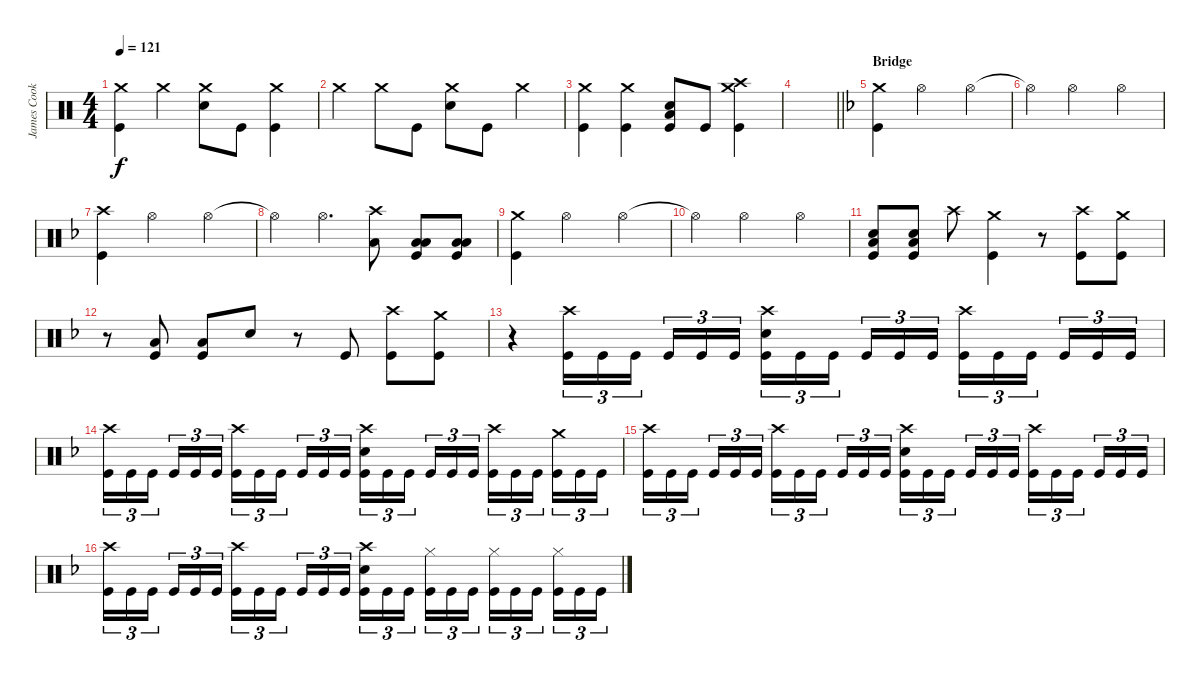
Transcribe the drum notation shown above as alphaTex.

\track ("James Cook" "James Cook") {instrument percussion}
\staff {score}
\articulation defaults
\ts (4 4)
\tempo 121
\clef neutral
\ks c
("Crash medium (hit)" "Kick (hit)").4{dy f} "Crash medium (hit)".4 ("Crash medium (hit)" "Snare (hit) 2").8 "Kick (hit)".8 ("Crash medium (hit)" "Kick (hit)").4 |
"Crash medium (hit)".4 "Crash medium (hit)".8 "Kick (hit)".8 ("Crash medium (hit)" "Snare (hit) 2").8 "Kick (hit)".8 "Crash medium (hit)".4 |
("Crash medium (hit)" "Kick (hit)").4 ("Crash medium (hit)" "Kick (hit)").4 ("Low Floor Tom (hit)" "Snare (hit) 2" "Kick (hit)").8 "Kick (hit)".8 ("Crash high (hit)" "Crash medium (hit)" "Kick (hit)").4 |
\barLineRight lightlight
|
\section ("" "Bridge")
\ks f
("Crash medium (hit)" "Kick (hit)").4 "Hi-Hat (open)".2 "Hi-Hat (open)".4 |
"Hi-Hat (open)"{t}.4 "Hi-Hat (open)".2 "Hi-Hat (open)".4 |
("Crash high (hit)" "Kick (hit)").4 "Hi-Hat (open)".2 "Hi-Hat (open)".4 |
"Hi-Hat (open)"{t}.4 "Hi-Hat (open)".4{d} ("Crash high (hit)" "Low Floor Tom (hit)").8 ("Low Tom (hit)" "Low Floor Tom (hit)" "Kick (hit)").8 ("Low Tom (hit)" "Low Floor Tom (hit)" "Kick (hit)").8 |
("Crash medium (hit)" "Kick (hit)").4 "Hi-Hat (open)".2 "Hi-Hat (open)".4 |
"Hi-Hat (open)"{t}.4 "Hi-Hat (open)".2 "Hi-Hat (open)".4 |
("Snare (hit) 2" "Low Floor Tom (hit)" "Kick (hit)").8 ("Snare (hit) 2" "Low Floor Tom (hit)" "Kick (hit)").8 "Crash high (hit)".8 ("Crash medium (hit)" "Kick (hit)").4 r.8 ("Crash high (hit)" "Kick (hit)").8 ("Crash medium (hit)" "Kick (hit)").8 |
r.8 ("Low Floor Tom (hit)" "Kick (hit)").8 ("Low Floor Tom (hit)" "Kick (hit)").8 "Snare (hit) 2".8 r.8 "Kick (hit)".8 ("Crash high (hit)" "Kick (hit)").8 ("Crash medium (hit)" "Kick (hit)").8 |
r.4 ("Crash high (hit)" "Kick (hit)").16{tu (3 2)} "Kick (hit)".16{tu (3 2)} "Kick (hit)".16{tu (3 2) beam splitsecondary} "Kick (hit)".16{tu (3 2)} "Kick (hit)".16{tu (3 2)} "Kick (hit)".16{tu (3 2)} ("Crash high (hit)" "Snare (hit) 2" "Kick (hit)").16{tu (3 2)} "Kick (hit)".16{tu (3 2)} "Kick (hit)".16{tu (3 2) beam splitsecondary} "Kick (hit)".16{tu (3 2)} "Kick (hit)".16{tu (3 2)} "Kick (hit)".16{tu (3 2)} ("Crash high (hit)" "Kick (hit)").16{tu (3 2)} "Kick (hit)".16{tu (3 2)} "Kick (hit)".16{tu (3 2) beam splitsecondary} "Kick (hit)".16{tu (3 2)} "Kick (hit)".16{tu (3 2)} "Kick (hit)".16{tu (3 2)} |
("Crash high (hit)" "Kick (hit)").16{tu (3 2)} "Kick (hit)".16{tu (3 2)} "Kick (hit)".16{tu (3 2) beam splitsecondary} "Kick (hit)".16{tu (3 2)} "Kick (hit)".16{tu (3 2)} "Kick (hit)".16{tu (3 2)} ("Crash high (hit)" "Kick (hit)").16{tu (3 2)} "Kick (hit)".16{tu (3 2)} "Kick (hit)".16{tu (3 2) beam splitsecondary} "Kick (hit)".16{tu (3 2)} "Kick (hit)".16{tu (3 2)} "Kick (hit)".16{tu (3 2)} ("Crash high (hit)" "Snare (hit) 2" "Kick (hit)").16{tu (3 2)} "Kick (hit)".16{tu (3 2)} "Kick (hit)".16{tu (3 2) beam splitsecondary} "Kick (hit)".16{tu (3 2)} "Kick (hit)".16{tu (3 2)} "Kick (hit)".16{tu (3 2)} ("Crash high (hit)" "Kick (hit)").16{tu (3 2)} "Kick (hit)".16{tu (3 2)} "Kick (hit)".16{tu (3 2) beam splitsecondary} ("Crash medium (hit)" "Kick (hit)").16{tu (3 2)} "Kick (hit)".16{tu (3 2)} "Kick (hit)".16{tu (3 2)} |
("Crash high (hit)" "Kick (hit)").16{tu (3 2)} "Kick (hit)".16{tu (3 2)} "Kick (hit)".16{tu (3 2) beam splitsecondary} "Kick (hit)".16{tu (3 2)} "Kick (hit)".16{tu (3 2)} "Kick (hit)".16{tu (3 2)} ("Crash high (hit)" "Kick (hit)").16{tu (3 2)} "Kick (hit)".16{tu (3 2)} "Kick (hit)".16{tu (3 2) beam splitsecondary} "Kick (hit)".16{tu (3 2)} "Kick (hit)".16{tu (3 2)} "Kick (hit)".16{tu (3 2)} ("Crash high (hit)" "Snare (hit) 2" "Kick (hit)").16{tu (3 2)} "Kick (hit)".16{tu (3 2)} "Kick (hit)".16{tu (3 2) beam splitsecondary} "Kick (hit)".16{tu (3 2)} "Kick (hit)".16{tu (3 2)} "Kick (hit)".16{tu (3 2)} ("Crash high (hit)" "Kick (hit)").16{tu (3 2)} "Kick (hit)".16{tu (3 2)} "Kick (hit)".16{tu (3 2) beam splitsecondary} "Kick (hit)".16{tu (3 2)} "Kick (hit)".16{tu (3 2)} "Kick (hit)".16{tu (3 2)} |
("Crash high (hit)" "Kick (hit)").16{tu (3 2)} "Kick (hit)".16{tu (3 2)} "Kick (hit)".16{tu (3 2) beam splitsecondary} "Kick (hit)".16{tu (3 2)} "Kick (hit)".16{tu (3 2)} "Kick (hit)".16{tu (3 2)} ("Crash high (hit)" "Kick (hit)").16{tu (3 2)} "Kick (hit)".16{tu (3 2)} "Kick (hit)".16{tu (3 2) beam splitsecondary} "Kick (hit)".16{tu (3 2)} "Kick (hit)".16{tu (3 2)} "Kick (hit)".16{tu (3 2)} ("Crash high (hit)" "Snare (hit) 2" "Kick (hit)").16{tu (3 2)} "Kick (hit)".16{tu (3 2)} "Kick (hit)".16{tu (3 2) beam splitsecondary} ("Hi-Hat (closed)" "Kick (hit)").16{tu (3 2)} "Kick (hit)".16{tu (3 2)} "Kick (hit)".16{tu (3 2)} ("Hi-Hat (closed)" "Kick (hit)").16{tu (3 2)} "Kick (hit)".16{tu (3 2)} "Kick (hit)".16{tu (3 2) beam splitsecondary} ("Hi-Hat (closed)" "Kick (hit)").16{tu (3 2)} "Kick (hit)".16{tu (3 2)} "Kick (hit)".16{tu (3 2)}
